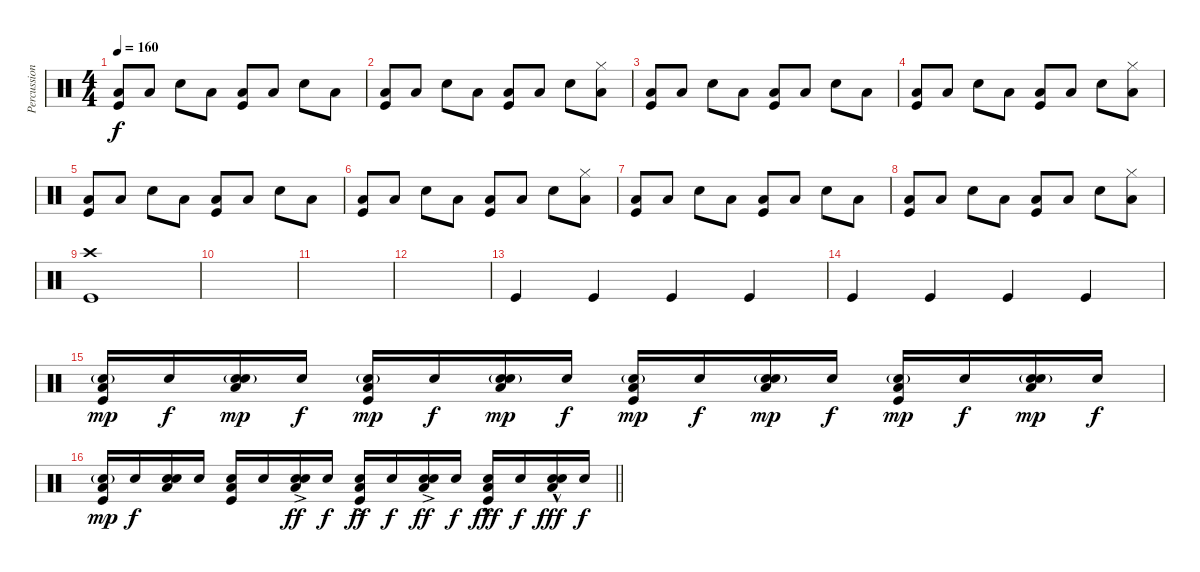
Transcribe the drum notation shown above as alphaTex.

\track ("Percussion" "Percussion") {instrument percussion}
\staff {score}
\articulation defaults
\ts (4 4)
\tempo 160
\clef neutral
\ks c
("Kick (hit)" "Low Floor Tom (hit)").8{dy f} "Low Floor Tom (hit)".8 "Electric Snare (hit)".8 "Low Floor Tom (hit)".8 ("Kick (hit)" "Low Floor Tom (hit)").8 "Low Floor Tom (hit)".8 "Electric Snare (hit)".8 "Low Floor Tom (hit)".8 |
("Kick (hit)" "Low Floor Tom (hit)").8 "Low Floor Tom (hit)".8 "Electric Snare (hit)".8 "Low Floor Tom (hit)".8 ("Kick (hit)" "Low Floor Tom (hit)").8 "Low Floor Tom (hit)".8 "Electric Snare (hit)".8 ("Low Floor Tom (hit)" "Hi-Hat (closed)").8 |
("Kick (hit)" "Low Floor Tom (hit)").8 "Low Floor Tom (hit)".8 "Electric Snare (hit)".8 "Low Floor Tom (hit)".8 ("Kick (hit)" "Low Floor Tom (hit)").8 "Low Floor Tom (hit)".8 "Electric Snare (hit)".8 "Low Floor Tom (hit)".8 |
("Kick (hit)" "Low Floor Tom (hit)").8 "Low Floor Tom (hit)".8 "Electric Snare (hit)".8 "Low Floor Tom (hit)".8 ("Kick (hit)" "Low Floor Tom (hit)").8 "Low Floor Tom (hit)".8 "Electric Snare (hit)".8 ("Low Floor Tom (hit)" "Hi-Hat (closed)").8 |
("Kick (hit)" "Low Floor Tom (hit)").8 "Low Floor Tom (hit)".8 "Electric Snare (hit)".8 "Low Floor Tom (hit)".8 ("Kick (hit)" "Low Floor Tom (hit)").8 "Low Floor Tom (hit)".8 "Electric Snare (hit)".8 "Low Floor Tom (hit)".8 |
("Kick (hit)" "Low Floor Tom (hit)").8 "Low Floor Tom (hit)".8 "Electric Snare (hit)".8 "Low Floor Tom (hit)".8 ("Kick (hit)" "Low Floor Tom (hit)").8 "Low Floor Tom (hit)".8 "Electric Snare (hit)".8 ("Low Floor Tom (hit)" "Hi-Hat (closed)").8 |
("Kick (hit)" "Low Floor Tom (hit)").8 "Low Floor Tom (hit)".8 "Electric Snare (hit)".8 "Low Floor Tom (hit)".8 ("Kick (hit)" "Low Floor Tom (hit)").8 "Low Floor Tom (hit)".8 "Electric Snare (hit)".8 "Low Floor Tom (hit)".8 |
("Kick (hit)" "Low Floor Tom (hit)").8 "Low Floor Tom (hit)".8 "Electric Snare (hit)".8 "Low Floor Tom (hit)".8 ("Kick (hit)" "Low Floor Tom (hit)").8 "Low Floor Tom (hit)".8 "Electric Snare (hit)".8 ("Low Floor Tom (hit)" "Hi-Hat (closed)").8 |
("Kick (hit)" "Crash high (hit)").1 |
|
|
|
"Kick (hit)".4 "Kick (hit)".4 "Kick (hit)".4 "Kick (hit)".4 |
"Kick (hit)".4 "Kick (hit)".4 "Kick (hit)".4 "Kick (hit)".4 |
("Kick (hit)" "Low Tom (hit)" "Electric Snare (hit)"{g}).16{dy mp} "Snare (hit)".16{dy f} ("Snare (hit)" "Low Tom (hit)" "Electric Snare (hit)"{g}).16{dy mp} "Snare (hit)".16{dy f} ("Kick (hit)" "Low Tom (hit)" "Electric Snare (hit)"{g}).16{dy mp} "Snare (hit)".16{dy f} ("Snare (hit)" "Low Tom (hit)" "Electric Snare (hit)"{g}).16{dy mp} "Snare (hit)".16{dy f} ("Kick (hit)" "Low Tom (hit)" "Electric Snare (hit)"{g}).16{dy mp} "Snare (hit)".16{dy f} ("Snare (hit)" "Low Tom (hit)" "Electric Snare (hit)"{g}).16{dy mp} "Snare (hit)".16{dy f} ("Kick (hit)" "Low Tom (hit)" "Electric Snare (hit)"{g}).16{dy mp} "Snare (hit)".16{dy f} ("Snare (hit)" "Low Tom (hit)" "Electric Snare (hit)"{g}).16{dy mp} "Snare (hit)".16{dy f} |
\barLineRight lightlight
("Kick (hit)" "Low Tom (hit)" "Electric Snare (hit)"{g}).16{dy mp} "Snare (hit)".16{dy f} ("Snare (hit)" "Low Tom (hit)" "Electric Snare (hit)").16 "Snare (hit)".16 ("Kick (hit)" "Low Tom (hit)" "Electric Snare (hit)").16 "Snare (hit)".16 ("Snare (hit)" "Low Tom (hit)" "Electric Snare (hit)"{ac}).16{dy ff} "Snare (hit)".16{dy f} ("Kick (hit)" "Low Tom (hit)" "Electric Snare (hit)"{ac}).16{dy ff} "Snare (hit)".16{dy f} ("Snare (hit)" "Low Tom (hit)" "Electric Snare (hit)"{ac}).16{dy ff} "Snare (hit)".16{dy f} ("Kick (hit)" "Low Tom (hit)" "Electric Snare (hit)"{hac}).16{dy fff} "Snare (hit)".16{dy f} ("Snare (hit)" "Low Tom (hit)" "Electric Snare (hit)"{hac}).16{dy fff} "Snare (hit)".16{dy f}
